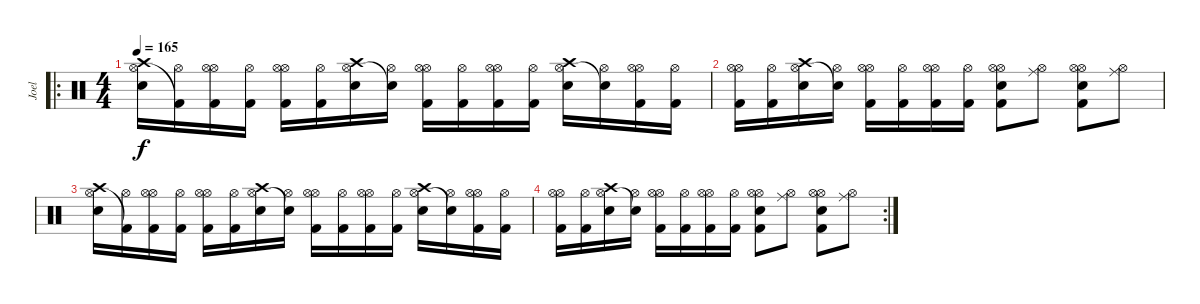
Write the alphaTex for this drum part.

\track ("Joel" "Joel") {instrument percussion}
\staff {score}
\articulation defaults
\ro
\ts (4 4)
\tempo 165
\clef neutral
\ks c
("Crash high (hit)" "Hi-Hat (open)" "Electric Snare (hit)").16{dy f} ("Hi-Hat (open)" "Kick (hit) 2"{t}).16 ("Hi-Hat (open)" "Hi-Hat (open)" "Kick (hit) 2").16 ("Hi-Hat (open)" "Kick (hit) 2").16 ("Hi-Hat (open)" "Hi-Hat (open)" "Kick (hit) 2").16 ("Hi-Hat (open)" "Kick (hit) 2").16 ("Crash high (hit)" "Hi-Hat (open)" "Electric Snare (hit)").16 ("Hi-Hat (open)" "Snare (hit)"{t}).16 ("Hi-Hat (open)" "Hi-Hat (open)" "Kick (hit) 2").16 ("Hi-Hat (open)" "Kick (hit) 2").16 ("Hi-Hat (open)" "Hi-Hat (open)" "Kick (hit) 2").16 ("Hi-Hat (open)" "Kick (hit) 2").16 ("Crash high (hit)" "Hi-Hat (open)" "Electric Snare (hit)").16 ("Hi-Hat (open)" "Snare (hit)"{t}).16 ("Hi-Hat (open)" "Hi-Hat (open)" "Kick (hit) 2").16 ("Hi-Hat (open)" "Kick (hit) 2").16 |
("Hi-Hat (open)" "Hi-Hat (open)" "Kick (hit) 2").16 ("Hi-Hat (open)" "Kick (hit) 2").16 ("Crash high (hit)" "Hi-Hat (open)" "Electric Snare (hit)").16 ("Hi-Hat (open)" "Snare (hit)"{t}).16 ("Hi-Hat (open)" "Hi-Hat (open)" "Kick (hit) 2").16 ("Hi-Hat (open)" "Kick (hit) 2").16 ("Hi-Hat (open)" "Hi-Hat (open)" "Kick (hit) 2").16 ("Hi-Hat (open)" "Kick (hit) 2").16 ("Hi-Hat (open)" "Hi-Hat (open)" "Electric Snare (hit)" "Kick (hit) 2").8 ("Ride (middle)" "Hi-Hat (open)").8 ("Hi-Hat (open)" "Hi-Hat (open)" "Electric Snare (hit)" "Kick (hit) 2").8 ("Ride (middle)" "Hi-Hat (open)").8 |
("Crash high (hit)" "Hi-Hat (open)" "Electric Snare (hit)").16 ("Hi-Hat (open)" "Kick (hit) 2"{t}).16 ("Hi-Hat (open)" "Hi-Hat (open)" "Kick (hit) 2").16 ("Hi-Hat (open)" "Kick (hit) 2").16 ("Hi-Hat (open)" "Hi-Hat (open)" "Kick (hit) 2").16 ("Hi-Hat (open)" "Kick (hit) 2").16 ("Crash high (hit)" "Hi-Hat (open)" "Electric Snare (hit)").16 ("Hi-Hat (open)" "Snare (hit)"{t}).16 ("Hi-Hat (open)" "Hi-Hat (open)" "Kick (hit) 2").16 ("Hi-Hat (open)" "Kick (hit) 2").16 ("Hi-Hat (open)" "Hi-Hat (open)" "Kick (hit) 2").16 ("Hi-Hat (open)" "Kick (hit) 2").16 ("Crash high (hit)" "Hi-Hat (open)" "Electric Snare (hit)").16 ("Hi-Hat (open)" "Snare (hit)"{t}).16 ("Hi-Hat (open)" "Hi-Hat (open)" "Kick (hit) 2").16 ("Hi-Hat (open)" "Kick (hit) 2").16 |
\rc 2
("Hi-Hat (open)" "Hi-Hat (open)" "Kick (hit) 2").16 ("Hi-Hat (open)" "Kick (hit) 2").16 ("Crash high (hit)" "Hi-Hat (open)" "Electric Snare (hit)").16 ("Hi-Hat (open)" "Snare (hit)"{t}).16 ("Hi-Hat (open)" "Hi-Hat (open)" "Kick (hit) 2").16 ("Hi-Hat (open)" "Kick (hit) 2").16 ("Hi-Hat (open)" "Hi-Hat (open)" "Kick (hit) 2").16 ("Hi-Hat (open)" "Kick (hit) 2").16 ("Hi-Hat (open)" "Hi-Hat (open)" "Electric Snare (hit)" "Kick (hit) 2").8 ("Ride (middle)" "Hi-Hat (open)").8 ("Hi-Hat (open)" "Hi-Hat (open)" "Electric Snare (hit)" "Kick (hit) 2").8 ("Ride (middle)" "Hi-Hat (open)").8
